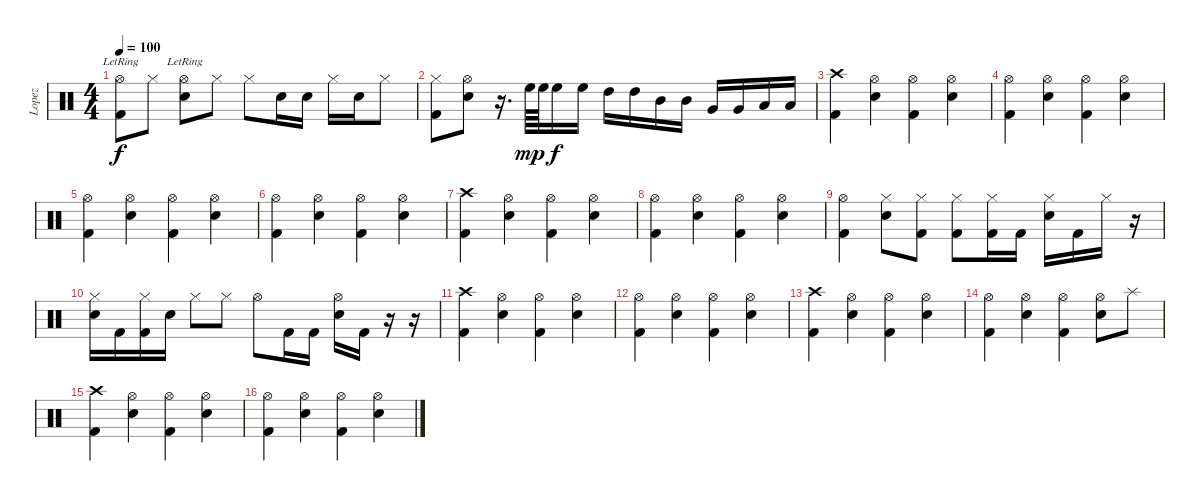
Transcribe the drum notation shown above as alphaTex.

\track ("Lopez" "Lopez") {instrument percussion}
\staff {score}
\articulation defaults
\ts (4 4)
\tempo 100
\clef neutral
\ks c
("Hi-Hat (open)"{lr} "Kick (hit) 2").8{dy f} "Hi-Hat (closed)".8 ("Hi-Hat (open)"{lr} "Snare (hit) 2").8 "Hi-Hat (closed)".8 "Hi-Hat (closed)".8 "Snare (hit) 2".16 "Snare (hit) 2".16 "Hi-Hat (closed)".16 "Snare (hit) 2".16 "Hi-Hat (closed)".8 |
("Hi-Hat (closed)" "Kick (hit) 2").8 ("Hi-Hat (open)" "Snare (hit) 2").8 r.16{d} "High Floor Tom (hit)".64{dy mp} "High Floor Tom (hit)".64 "High Floor Tom (hit)".16{dy f} "High Floor Tom (hit)".16 "High Tom (hit)".16 "High Tom (hit)".16 "Mid Tom (hit)".16 "Mid Tom (hit)".16 "Very Low Tom (hit)".16 "Very Low Tom (hit)".16 "Low Floor Tom (hit)".16 "Low Floor Tom (hit)".16 |
("Crash high (hit)" "Kick (hit) 2").4 ("Hi-Hat (open)" "Snare (hit) 2").4 ("Hi-Hat (open)" "Kick (hit) 2").4 ("Hi-Hat (open)" "Snare (hit) 2").4 |
("Hi-Hat (open)" "Kick (hit) 2").4 ("Hi-Hat (open)" "Snare (hit) 2").4 ("Hi-Hat (open)" "Kick (hit) 2").4 ("Hi-Hat (open)" "Snare (hit) 2").4 |
("Hi-Hat (open)" "Kick (hit) 2").4 ("Hi-Hat (open)" "Snare (hit) 2").4 ("Hi-Hat (open)" "Kick (hit) 2").4 ("Hi-Hat (open)" "Snare (hit) 2").4 |
("Hi-Hat (open)" "Kick (hit) 2").4 ("Hi-Hat (open)" "Snare (hit) 2").4 ("Hi-Hat (open)" "Kick (hit) 2").4 ("Hi-Hat (open)" "Snare (hit) 2").4 |
("Crash high (hit)" "Kick (hit) 2").4 ("Hi-Hat (open)" "Snare (hit) 2").4 ("Hi-Hat (open)" "Kick (hit) 2").4 ("Hi-Hat (open)" "Snare (hit) 2").4 |
("Hi-Hat (open)" "Kick (hit) 2").4 ("Hi-Hat (open)" "Snare (hit) 2").4 ("Hi-Hat (open)" "Kick (hit) 2").4 ("Hi-Hat (open)" "Snare (hit) 2").4 |
("Hi-Hat (open)" "Kick (hit) 2").4 ("Hi-Hat (closed)" "Snare (hit) 2").8 ("Hi-Hat (closed)" "Kick (hit) 2").8 ("Hi-Hat (closed)" "Kick (hit) 2").8 ("Hi-Hat (closed)" "Kick (hit) 2").16 "Kick (hit) 2".16 ("Hi-Hat (closed)" "Snare (hit) 2").16 "Kick (hit) 2".16 "Hi-Hat (closed)".16 r.16 |
("Hi-Hat (closed)" "Snare (hit) 2").16 "Kick (hit) 2".16 ("Hi-Hat (closed)" "Kick (hit) 2").16 "Snare (hit) 2".16 "Hi-Hat (closed)".8 "Hi-Hat (closed)".8 "Hi-Hat (open)".8 "Kick (hit) 2".16 "Kick (hit) 2".16 ("Hi-Hat (open)" "Snare (hit) 2").16 "Kick (hit) 2".16 r.16 r.16 |
("Crash high (hit)" "Kick (hit) 2").4 ("Hi-Hat (open)" "Snare (hit) 2").4 ("Hi-Hat (open)" "Kick (hit) 2").4 ("Hi-Hat (open)" "Snare (hit) 2").4 |
("Hi-Hat (open)" "Kick (hit) 2").4 ("Hi-Hat (open)" "Snare (hit) 2").4 ("Hi-Hat (open)" "Kick (hit) 2").4 ("Hi-Hat (open)" "Snare (hit) 2").4 |
("Crash high (hit)" "Kick (hit) 2").4 ("Hi-Hat (open)" "Snare (hit) 2").4 ("Hi-Hat (open)" "Kick (hit) 2").4 ("Hi-Hat (open)" "Snare (hit) 2").4 |
("Hi-Hat (open)" "Kick (hit) 2").4 ("Hi-Hat (open)" "Snare (hit) 2").4 ("Hi-Hat (open)" "Kick (hit) 2").4 ("Hi-Hat (open)" "Snare (hit) 2").8 "Splash (hit)".8 |
("Crash high (hit)" "Kick (hit) 2").4 ("Hi-Hat (open)" "Snare (hit) 2").4 ("Hi-Hat (open)" "Kick (hit) 2").4 ("Hi-Hat (open)" "Snare (hit) 2").4 |
("Hi-Hat (open)" "Kick (hit) 2").4 ("Hi-Hat (open)" "Snare (hit) 2").4 ("Hi-Hat (open)" "Kick (hit) 2").4 ("Hi-Hat (open)" "Snare (hit) 2").4
